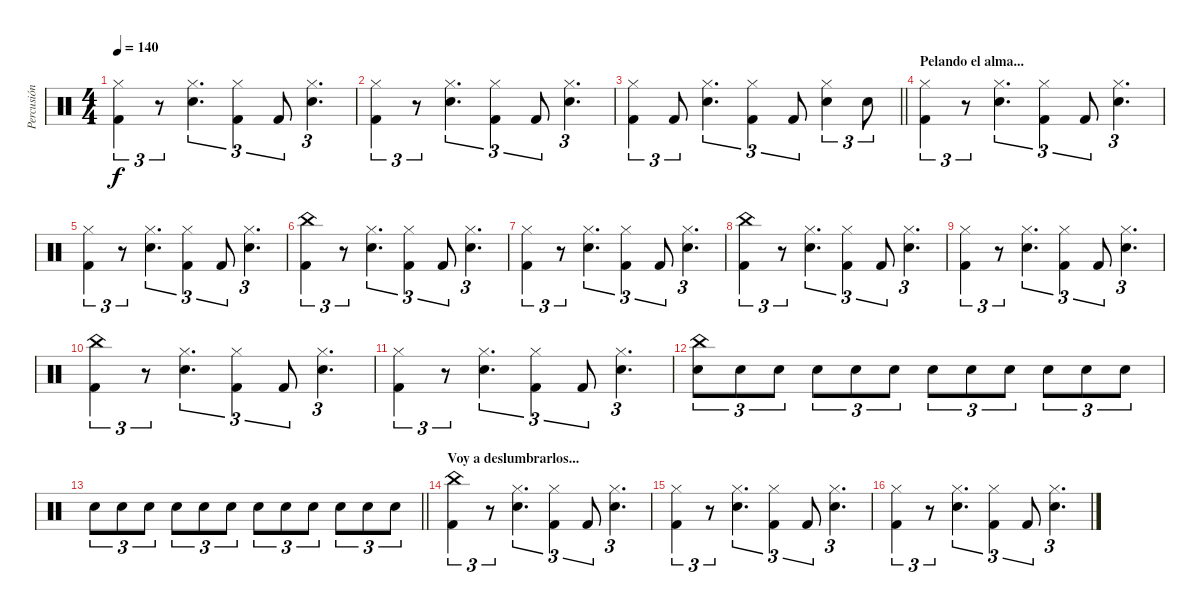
\track ("Percusión" "Percusión") {instrument percussion}
\staff {score}
\articulation defaults
\ts (4 4)
\tempo 140
\clef neutral
\ks c
("Hi-Hat (closed)" "Kick (hit) 2").4{tu (3 2) dy f} r.8{tu (3 2)} ("Hi-Hat (closed)" "Snare (hit) 2").4{d tu (3 2)} ("Hi-Hat (closed)" "Kick (hit) 2").4{tu (3 2)} "Kick (hit) 2".8{tu (3 2)} ("Hi-Hat (closed)" "Snare (hit) 2").4{d tu (3 2)} |
("Hi-Hat (closed)" "Kick (hit) 2").4{tu (3 2)} r.8{tu (3 2)} ("Hi-Hat (closed)" "Snare (hit) 2").4{d tu (3 2)} ("Hi-Hat (closed)" "Kick (hit) 2").4{tu (3 2)} "Kick (hit) 2".8{tu (3 2)} ("Hi-Hat (closed)" "Snare (hit) 2").4{d tu (3 2)} |
\barLineRight lightlight
("Hi-Hat (closed)" "Kick (hit) 2").4{tu (3 2)} "Kick (hit) 2".8{tu (3 2)} ("Hi-Hat (closed)" "Snare (hit) 2").4{d tu (3 2)} ("Hi-Hat (closed)" "Kick (hit) 2").4{tu (3 2)} "Kick (hit) 2".8{tu (3 2)} ("Hi-Hat (closed)" "Snare (hit) 2").4{tu (3 2)} "Snare (hit) 2".8{tu (3 2)} |
\section ("" "Pelando el alma...")
("Hi-Hat (closed)" "Kick (hit) 2").4{tu (3 2)} r.8{tu (3 2)} ("Hi-Hat (closed)" "Snare (hit) 2").4{d tu (3 2)} ("Hi-Hat (closed)" "Kick (hit) 2").4{tu (3 2)} "Kick (hit) 2".8{tu (3 2)} ("Hi-Hat (closed)" "Snare (hit) 2").4{d tu (3 2)} |
("Hi-Hat (closed)" "Kick (hit) 2").4{tu (3 2)} r.8{tu (3 2)} ("Hi-Hat (closed)" "Snare (hit) 2").4{d tu (3 2)} ("Hi-Hat (closed)" "Kick (hit) 2").4{tu (3 2)} "Kick (hit) 2".8{tu (3 2)} ("Hi-Hat (closed)" "Snare (hit) 2").4{d tu (3 2)} |
("China (hit)" "Kick (hit) 2").4{tu (3 2)} r.8{tu (3 2)} ("Hi-Hat (closed)" "Snare (hit) 2").4{d tu (3 2)} ("Hi-Hat (closed)" "Kick (hit) 2").4{tu (3 2)} "Kick (hit) 2".8{tu (3 2)} ("Hi-Hat (closed)" "Snare (hit) 2").4{d tu (3 2)} |
("Hi-Hat (closed)" "Kick (hit) 2").4{tu (3 2)} r.8{tu (3 2)} ("Hi-Hat (closed)" "Snare (hit) 2").4{d tu (3 2)} ("Hi-Hat (closed)" "Kick (hit) 2").4{tu (3 2)} "Kick (hit) 2".8{tu (3 2)} ("Hi-Hat (closed)" "Snare (hit) 2").4{d tu (3 2)} |
("China (hit)" "Kick (hit) 2").4{tu (3 2)} r.8{tu (3 2)} ("Hi-Hat (closed)" "Snare (hit) 2").4{d tu (3 2)} ("Hi-Hat (closed)" "Kick (hit) 2").4{tu (3 2)} "Kick (hit) 2".8{tu (3 2)} ("Hi-Hat (closed)" "Snare (hit) 2").4{d tu (3 2)} |
("Hi-Hat (closed)" "Kick (hit) 2").4{tu (3 2)} r.8{tu (3 2)} ("Hi-Hat (closed)" "Snare (hit) 2").4{d tu (3 2)} ("Hi-Hat (closed)" "Kick (hit) 2").4{tu (3 2)} "Kick (hit) 2".8{tu (3 2)} ("Hi-Hat (closed)" "Snare (hit) 2").4{d tu (3 2)} |
("China (hit)" "Kick (hit) 2").4{tu (3 2)} r.8{tu (3 2)} ("Hi-Hat (closed)" "Snare (hit) 2").4{d tu (3 2)} ("Hi-Hat (closed)" "Kick (hit) 2").4{tu (3 2)} "Kick (hit) 2".8{tu (3 2)} ("Hi-Hat (closed)" "Snare (hit) 2").4{d tu (3 2)} |
("Hi-Hat (closed)" "Kick (hit) 2").4{tu (3 2)} r.8{tu (3 2)} ("Hi-Hat (closed)" "Snare (hit) 2").4{d tu (3 2)} ("Hi-Hat (closed)" "Kick (hit) 2").4{tu (3 2)} "Kick (hit) 2".8{tu (3 2)} ("Hi-Hat (closed)" "Snare (hit) 2").4{d tu (3 2)} |
("China (hit)" "Snare (hit) 2").8{tu (3 2)} "Snare (hit) 2".8{tu (3 2)} "Snare (hit) 2".8{tu (3 2)} "Snare (hit) 2".8{tu (3 2)} "Snare (hit) 2".8{tu (3 2)} "Snare (hit) 2".8{tu (3 2)} "Snare (hit) 2".8{tu (3 2)} "Snare (hit) 2".8{tu (3 2)} "Snare (hit) 2".8{tu (3 2)} "Snare (hit) 2".8{tu (3 2)} "Snare (hit) 2".8{tu (3 2)} "Snare (hit) 2".8{tu (3 2)} |
\barLineRight lightlight "Snare (hit) 2".8{tu (3 2)} "Snare (hit) 2".8{tu (3 2)} "Snare (hit) 2".8{tu (3 2)} "Snare (hit) 2".8{tu (3 2)} "Snare (hit) 2".8{tu (3 2)} "Snare (hit) 2".8{tu (3 2)} "Snare (hit) 2".8{tu (3 2)} "Snare (hit) 2".8{tu (3 2)} "Snare (hit) 2".8{tu (3 2)} "Snare (hit) 2".8{tu (3 2)} "Snare (hit) 2".8{tu (3 2)} "Snare (hit) 2".8{tu (3 2)}
|
\section ("" "Voy a deslumbrarlos...")
("China (hit)" "Kick (hit) 2").4{tu (3 2)} r.8{tu (3 2)} ("Hi-Hat (closed)" "Snare (hit) 2").4{d tu (3 2)} ("Hi-Hat (closed)" "Kick (hit) 2").4{tu (3 2)} "Kick (hit) 2".8{tu (3 2)} ("Hi-Hat (closed)" "Snare (hit) 2").4{d tu (3 2)} |
("Hi-Hat (closed)" "Kick (hit) 2").4{tu (3 2)} r.8{tu (3 2)} ("Hi-Hat (closed)" "Snare (hit) 2").4{d tu (3 2)} ("Hi-Hat (closed)" "Kick (hit) 2").4{tu (3 2)} "Kick (hit) 2".8{tu (3 2)} ("Hi-Hat (closed)" "Snare (hit) 2").4{d tu (3 2)} |
("Hi-Hat (closed)" "Kick (hit) 2").4{tu (3 2)} r.8{tu (3 2)} ("Hi-Hat (closed)" "Snare (hit) 2").4{d tu (3 2)} ("Hi-Hat (closed)" "Kick (hit) 2").4{tu (3 2)} "Kick (hit) 2".8{tu (3 2)} ("Hi-Hat (closed)" "Snare (hit) 2").4{d tu (3 2)}
